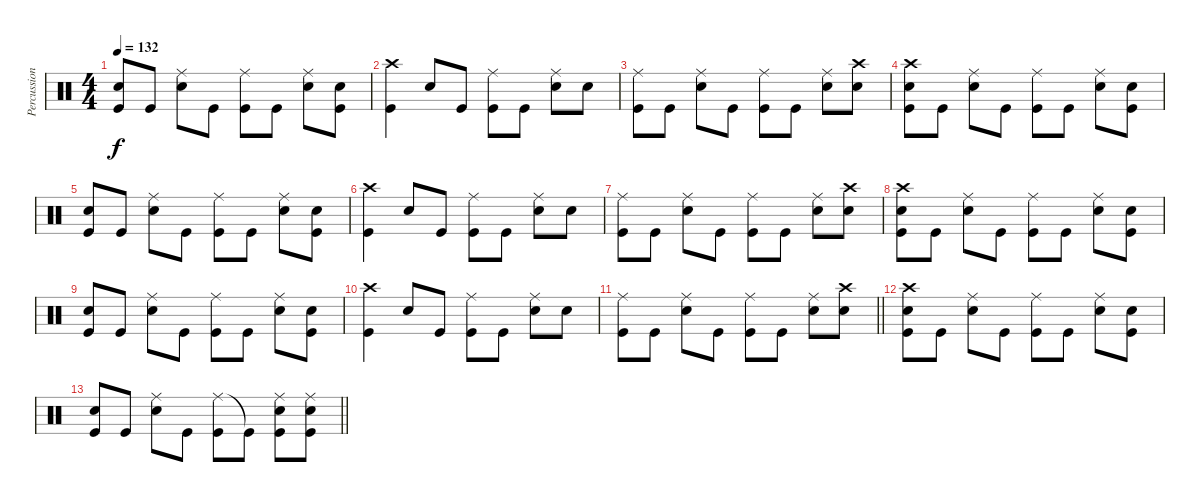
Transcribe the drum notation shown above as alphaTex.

\track ("Percussion" "Percussion") {instrument percussion}
\staff {score}
\articulation defaults
\ts (4 4)
\tempo 132
\clef neutral
\ks c
("Electric Snare (hit)" "Kick (hit)").8{dy f} "Kick (hit)".8 ("Ride (middle)" "Electric Snare (hit)").8 "Kick (hit)".8 ("Ride (middle)" "Kick (hit)").8 "Kick (hit)".8 ("Ride (middle)" "Electric Snare (hit)").8 ("Electric Snare (hit)" "Kick (hit)").8 |
("Crash high (hit)" "Kick (hit)").4 "Electric Snare (hit)".8 "Kick (hit)".8 ("Ride (middle)" "Kick (hit)").8 "Kick (hit)".8 ("Ride (middle)" "Electric Snare (hit)").8 "Electric Snare (hit)".8 |
("Ride (middle)" "Kick (hit)").8 "Kick (hit)".8 ("Ride (middle)" "Electric Snare (hit)").8 "Kick (hit)".8 ("Ride (middle)" "Kick (hit)").8 "Kick (hit)".8 ("Ride (middle)" "Electric Snare (hit)").8 ("Crash high (hit)" "Electric Snare (hit)").8 |
("Crash high (hit)" "Electric Snare (hit)" "Kick (hit)").8 "Kick (hit)".8 ("Ride (middle)" "Electric Snare (hit)").8 "Kick (hit)".8 ("Ride (middle)" "Kick (hit)").8 "Kick (hit)".8 ("Ride (middle)" "Electric Snare (hit)").8 ("Electric Snare (hit)" "Kick (hit)").8 |
("Electric Snare (hit)" "Kick (hit)").8 "Kick (hit)".8 ("Ride (middle)" "Electric Snare (hit)").8 "Kick (hit)".8 ("Ride (middle)" "Kick (hit)").8 "Kick (hit)".8 ("Ride (middle)" "Electric Snare (hit)").8 ("Electric Snare (hit)" "Kick (hit)").8 |
("Crash high (hit)" "Kick (hit)").4 "Electric Snare (hit)".8 "Kick (hit)".8 ("Ride (middle)" "Kick (hit)").8 "Kick (hit)".8 ("Ride (middle)" "Electric Snare (hit)").8 "Electric Snare (hit)".8 |
("Ride (middle)" "Kick (hit)").8 "Kick (hit)".8 ("Ride (middle)" "Electric Snare (hit)").8 "Kick (hit)".8 ("Ride (middle)" "Kick (hit)").8 "Kick (hit)".8 ("Ride (middle)" "Electric Snare (hit)").8 ("Crash high (hit)" "Electric Snare (hit)").8 |
("Crash high (hit)" "Electric Snare (hit)" "Kick (hit)").8 "Kick (hit)".8 ("Ride (middle)" "Electric Snare (hit)").8 "Kick (hit)".8 ("Ride (middle)" "Kick (hit)").8 "Kick (hit)".8 ("Ride (middle)" "Electric Snare (hit)").8 ("Electric Snare (hit)" "Kick (hit)").8 |
("Electric Snare (hit)" "Kick (hit)").8 "Kick (hit)".8 ("Ride (middle)" "Electric Snare (hit)").8 "Kick (hit)".8 ("Ride (middle)" "Kick (hit)").8 "Kick (hit)".8 ("Ride (middle)" "Electric Snare (hit)").8 ("Electric Snare (hit)" "Kick (hit)").8 |
("Crash high (hit)" "Kick (hit)").4 "Electric Snare (hit)".8 "Kick (hit)".8 ("Ride (middle)" "Kick (hit)").8 "Kick (hit)".8 ("Ride (middle)" "Electric Snare (hit)").8 "Electric Snare (hit)".8 |
\barLineRight lightlight
("Ride (middle)" "Kick (hit)").8 "Kick (hit)".8 ("Ride (middle)" "Electric Snare (hit)").8 "Kick (hit)".8 ("Ride (middle)" "Kick (hit)").8 "Kick (hit)".8 ("Ride (middle)" "Electric Snare (hit)").8 ("Crash high (hit)" "Electric Snare (hit)").8 |
("Crash high (hit)" "Electric Snare (hit)" "Kick (hit)").8 "Kick (hit)".8 ("Ride (middle)" "Electric Snare (hit)").8 "Kick (hit)".8 ("Ride (middle)" "Kick (hit)").8 "Kick (hit)".8 ("Ride (middle)" "Electric Snare (hit)").8 ("Electric Snare (hit)" "Kick (hit)").8 |
\barLineRight lightlight
("Electric Snare (hit)" "Kick (hit)").8 "Kick (hit)".8 ("Ride (middle)" "Electric Snare (hit)").8 "Kick (hit)".8 ("Ride (middle)" "Kick (hit)").8 "Kick (hit)"{t}.8 ("Ride (middle)" "Electric Snare (hit)" "Kick (hit)").8 ("Ride (middle)" "Electric Snare (hit)" "Kick (hit)").8
